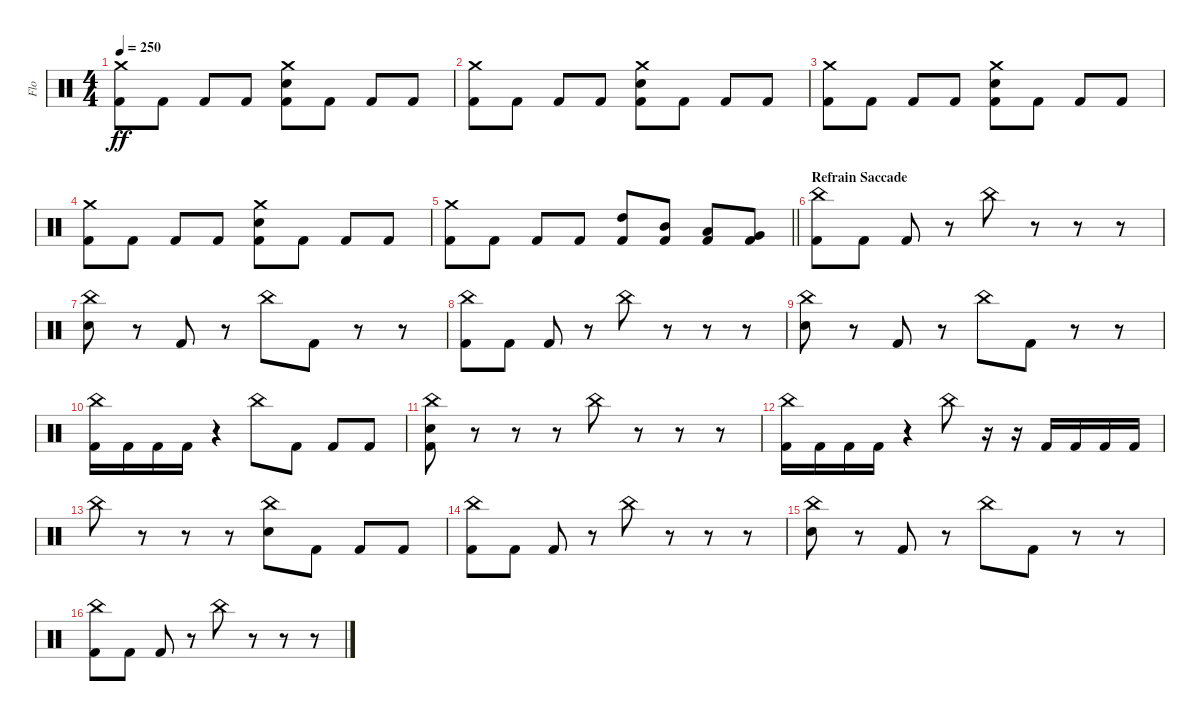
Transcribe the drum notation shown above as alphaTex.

\track ("Flo" "Flo") {instrument percussion}
\staff {score}
\articulation defaults
\ts (4 4)
\tempo 250
\clef neutral
\ks c
("Crash medium (hit)" "Kick (hit) 2").8{dy ff} "Kick (hit) 2".8 "Kick (hit) 2".8 "Kick (hit) 2".8 ("Crash medium (hit)" "Electric Snare (hit)" "Kick (hit) 2").8 "Kick (hit) 2".8 "Kick (hit) 2".8 "Kick (hit) 2".8 |
("Crash medium (hit)" "Kick (hit) 2").8 "Kick (hit) 2".8 "Kick (hit) 2".8 "Kick (hit) 2".8 ("Crash medium (hit)" "Electric Snare (hit)" "Kick (hit) 2").8 "Kick (hit) 2".8 "Kick (hit) 2".8 "Kick (hit) 2".8 |
("Crash medium (hit)" "Kick (hit) 2").8 "Kick (hit) 2".8 "Kick (hit) 2".8 "Kick (hit) 2".8 ("Crash medium (hit)" "Electric Snare (hit)" "Kick (hit) 2").8 "Kick (hit) 2".8 "Kick (hit) 2".8 "Kick (hit) 2".8 |
("Crash medium (hit)" "Kick (hit) 2").8 "Kick (hit) 2".8 "Kick (hit) 2".8 "Kick (hit) 2".8 ("Crash medium (hit)" "Electric Snare (hit)" "Kick (hit) 2").8 "Kick (hit) 2".8 "Kick (hit) 2".8 "Kick (hit) 2".8 |
\barLineRight lightlight
("Crash medium (hit)" "Kick (hit) 2").8 "Kick (hit) 2".8 "Kick (hit) 2".8 "Kick (hit) 2".8 ("High Tom (hit)" "Kick (hit) 2").8 ("Mid Tom (hit)" "Kick (hit) 2").8 ("Low Tom (hit)" "Kick (hit) 2").8 ("Very Low Tom (hit)" "Kick (hit) 2").8 |
\section ("" "Refrain Saccade")
("China (hit)" "Kick (hit) 2").8 "Kick (hit) 2".8 "Kick (hit) 2".8 r.8 "China (hit)".8 r.8 r.8 r.8 |
("China (hit)" "Electric Snare (hit)").8 r.8 "Kick (hit) 2".8 r.8 "China (hit)".8 "Kick (hit) 2".8 r.8 r.8 |
("China (hit)" "Kick (hit) 2").8 "Kick (hit) 2".8 "Kick (hit) 2".8 r.8 "China (hit)".8 r.8 r.8 r.8 |
("China (hit)" "Electric Snare (hit)").8 r.8 "Kick (hit) 2".8 r.8 "China (hit)".8 "Kick (hit) 2".8 r.8 r.8 |
("China (hit)" "Kick (hit) 2").16 "Kick (hit) 2".16 "Kick (hit) 2".16 "Kick (hit) 2".16 r.4 "China (hit)".8 "Kick (hit) 2".8 "Kick (hit) 2".8 "Kick (hit) 2".8 |
("China (hit)" "Electric Snare (hit)" "Kick (hit) 2").8 r.8 r.8 r.8 "China (hit)".8 r.8 r.8 r.8 |
("China (hit)" "Kick (hit) 2").16 "Kick (hit) 2".16 "Kick (hit) 2".16 "Kick (hit) 2".16 r.4 "China (hit)".8 r.16 r.16 "Kick (hit) 2".16 "Kick (hit) 2".16 "Kick (hit) 2".16 "Kick (hit) 2".16 |
"China (hit)".8 r.8 r.8 r.8 ("China (hit)" "Electric Snare (hit)").8 "Kick (hit) 2".8 "Kick (hit) 2".8 "Kick (hit) 2".8 |
("China (hit)" "Kick (hit) 2").8 "Kick (hit) 2".8 "Kick (hit) 2".8 r.8 "China (hit)".8 r.8 r.8 r.8 |
("China (hit)" "Electric Snare (hit)").8 r.8 "Kick (hit) 2".8 r.8 "China (hit)".8 "Kick (hit) 2".8 r.8 r.8 |
("China (hit)" "Kick (hit) 2").8 "Kick (hit) 2".8 "Kick (hit) 2".8 r.8 "China (hit)".8 r.8 r.8 r.8
